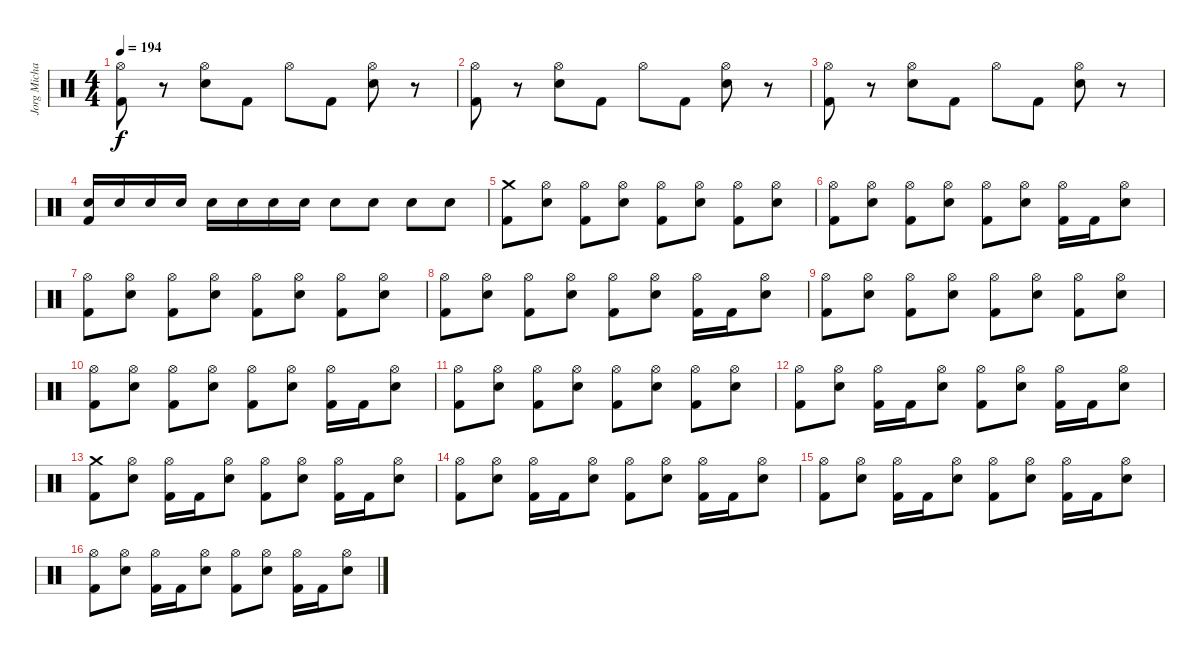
\track ("Jorg Michael" "Jorg Micha") {instrument percussion}
\staff {score}
\articulation defaults
\ts (4 4)
\tempo 194
\clef neutral
\ks c
("Hi-Hat (open)" "Kick (hit) 2").8{dy f} r.8 ("Snare (hit) 2" "Hi-Hat (open)").8 "Kick (hit) 2".8 "Hi-Hat (open)".8 "Kick (hit) 2".8 ("Snare (hit) 2" "Hi-Hat (open)").8 r.8 |
("Hi-Hat (open)" "Kick (hit) 2").8 r.8 ("Snare (hit) 2" "Hi-Hat (open)").8 "Kick (hit) 2".8 "Hi-Hat (open)".8 "Kick (hit) 2".8 ("Snare (hit) 2" "Hi-Hat (open)").8 r.8 |
("Hi-Hat (open)" "Kick (hit) 2").8 r.8 ("Snare (hit) 2" "Hi-Hat (open)").8 "Kick (hit) 2".8 "Hi-Hat (open)".8 "Kick (hit) 2".8 ("Snare (hit) 2" "Hi-Hat (open)").8 r.8 |
("Snare (hit) 2" "Kick (hit) 2").16 "Snare (hit) 2".16 "Snare (hit) 2".16 "Snare (hit) 2".16 "Snare (hit) 2".16 "Snare (hit) 2".16 "Snare (hit) 2".16 "Snare (hit) 2".16 "Snare (hit) 2".8 "Snare (hit) 2".8 "Snare (hit) 2".8 "Snare (hit) 2".8 |
("Kick (hit) 2" "Crash medium (hit)").8 ("Snare (hit) 2" "Hi-Hat (open)").8 ("Kick (hit) 2" "Hi-Hat (open)").8 ("Snare (hit) 2" "Hi-Hat (open)").8 ("Kick (hit) 2" "Hi-Hat (open)").8 ("Snare (hit) 2" "Hi-Hat (open)").8 ("Kick (hit) 2" "Hi-Hat (open)").8 ("Snare (hit) 2" "Hi-Hat (open)").8 |
("Kick (hit) 2" "Hi-Hat (open)").8 ("Snare (hit) 2" "Hi-Hat (open)").8 ("Kick (hit) 2" "Hi-Hat (open)").8 ("Snare (hit) 2" "Hi-Hat (open)").8 ("Kick (hit) 2" "Hi-Hat (open)").8 ("Snare (hit) 2" "Hi-Hat (open)").8 ("Kick (hit) 2" "Hi-Hat (open)").16 "Kick (hit) 2".16 ("Snare (hit) 2" "Hi-Hat (open)").8 |
("Hi-Hat (open)" "Kick (hit) 2").8 ("Snare (hit) 2" "Hi-Hat (open)").8 ("Kick (hit) 2" "Hi-Hat (open)").8 ("Snare (hit) 2" "Hi-Hat (open)").8 ("Kick (hit) 2" "Hi-Hat (open)").8 ("Snare (hit) 2" "Hi-Hat (open)").8 ("Kick (hit) 2" "Hi-Hat (open)").8 ("Snare (hit) 2" "Hi-Hat (open)").8 |
("Kick (hit) 2" "Hi-Hat (open)").8 ("Snare (hit) 2" "Hi-Hat (open)").8 ("Kick (hit) 2" "Hi-Hat (open)").8 ("Snare (hit) 2" "Hi-Hat (open)").8 ("Kick (hit) 2" "Hi-Hat (open)").8 ("Snare (hit) 2" "Hi-Hat (open)").8 ("Kick (hit) 2" "Hi-Hat (open)").16 "Kick (hit) 2".16 ("Snare (hit) 2" "Hi-Hat (open)").8 |
("Hi-Hat (open)" "Kick (hit) 2").8 ("Snare (hit) 2" "Hi-Hat (open)").8 ("Kick (hit) 2" "Hi-Hat (open)").8 ("Snare (hit) 2" "Hi-Hat (open)").8 ("Kick (hit) 2" "Hi-Hat (open)").8 ("Snare (hit) 2" "Hi-Hat (open)").8 ("Kick (hit) 2" "Hi-Hat (open)").8 ("Snare (hit) 2" "Hi-Hat (open)").8 |
("Kick (hit) 2" "Hi-Hat (open)").8 ("Snare (hit) 2" "Hi-Hat (open)").8 ("Kick (hit) 2" "Hi-Hat (open)").8 ("Snare (hit) 2" "Hi-Hat (open)").8 ("Kick (hit) 2" "Hi-Hat (open)").8 ("Snare (hit) 2" "Hi-Hat (open)").8 ("Kick (hit) 2" "Hi-Hat (open)").16 "Kick (hit) 2".16 ("Snare (hit) 2" "Hi-Hat (open)").8 |
("Hi-Hat (open)" "Kick (hit) 2").8 ("Snare (hit) 2" "Hi-Hat (open)").8 ("Kick (hit) 2" "Hi-Hat (open)").8 ("Snare (hit) 2" "Hi-Hat (open)").8 ("Kick (hit) 2" "Hi-Hat (open)").8 ("Snare (hit) 2" "Hi-Hat (open)").8 ("Kick (hit) 2" "Hi-Hat (open)").8 ("Snare (hit) 2" "Hi-Hat (open)").8 |
("Kick (hit) 2" "Hi-Hat (open)").8 ("Snare (hit) 2" "Hi-Hat (open)").8 ("Kick (hit) 2" "Hi-Hat (open)").16 "Kick (hit) 2".16 ("Snare (hit) 2" "Hi-Hat (open)").8 ("Kick (hit) 2" "Hi-Hat (open)").8 ("Snare (hit) 2" "Hi-Hat (open)").8 ("Kick (hit) 2" "Hi-Hat (open)").16 "Kick (hit) 2".16 ("Snare (hit) 2" "Hi-Hat (open)").8 |
("Crash medium (hit)" "Kick (hit) 2").8 ("Snare (hit) 2" "Hi-Hat (open)").8 ("Kick (hit) 2" "Hi-Hat (open)").16 "Kick (hit) 2".16 ("Snare (hit) 2" "Hi-Hat (open)").8 ("Kick (hit) 2" "Hi-Hat (open)").8 ("Snare (hit) 2" "Hi-Hat (open)").8 ("Kick (hit) 2" "Hi-Hat (open)").16 "Kick (hit) 2".16 ("Snare (hit) 2" "Hi-Hat (open)").8 |
("Kick (hit) 2" "Hi-Hat (open)").8 ("Snare (hit) 2" "Hi-Hat (open)").8 ("Kick (hit) 2" "Hi-Hat (open)").16 "Kick (hit) 2".16 ("Snare (hit) 2" "Hi-Hat (open)").8 ("Kick (hit) 2" "Hi-Hat (open)").8 ("Snare (hit) 2" "Hi-Hat (open)").8 ("Kick (hit) 2" "Hi-Hat (open)").16 "Kick (hit) 2".16 ("Snare (hit) 2" "Hi-Hat (open)").8 |
("Kick (hit) 2" "Hi-Hat (open)").8 ("Snare (hit) 2" "Hi-Hat (open)").8 ("Kick (hit) 2" "Hi-Hat (open)").16 "Kick (hit) 2".16 ("Snare (hit) 2" "Hi-Hat (open)").8 ("Kick (hit) 2" "Hi-Hat (open)").8 ("Snare (hit) 2" "Hi-Hat (open)").8 ("Kick (hit) 2" "Hi-Hat (open)").16 "Kick (hit) 2".16 ("Snare (hit) 2" "Hi-Hat (open)").8 |
("Kick (hit) 2" "Hi-Hat (open)").8 ("Snare (hit) 2" "Hi-Hat (open)").8 ("Kick (hit) 2" "Hi-Hat (open)").16 "Kick (hit) 2".16 ("Snare (hit) 2" "Hi-Hat (open)").8 ("Kick (hit) 2" "Hi-Hat (open)").8 ("Snare (hit) 2" "Hi-Hat (open)").8 ("Kick (hit) 2" "Hi-Hat (open)").16 "Kick (hit) 2".16 ("Snare (hit) 2" "Hi-Hat (open)").8
